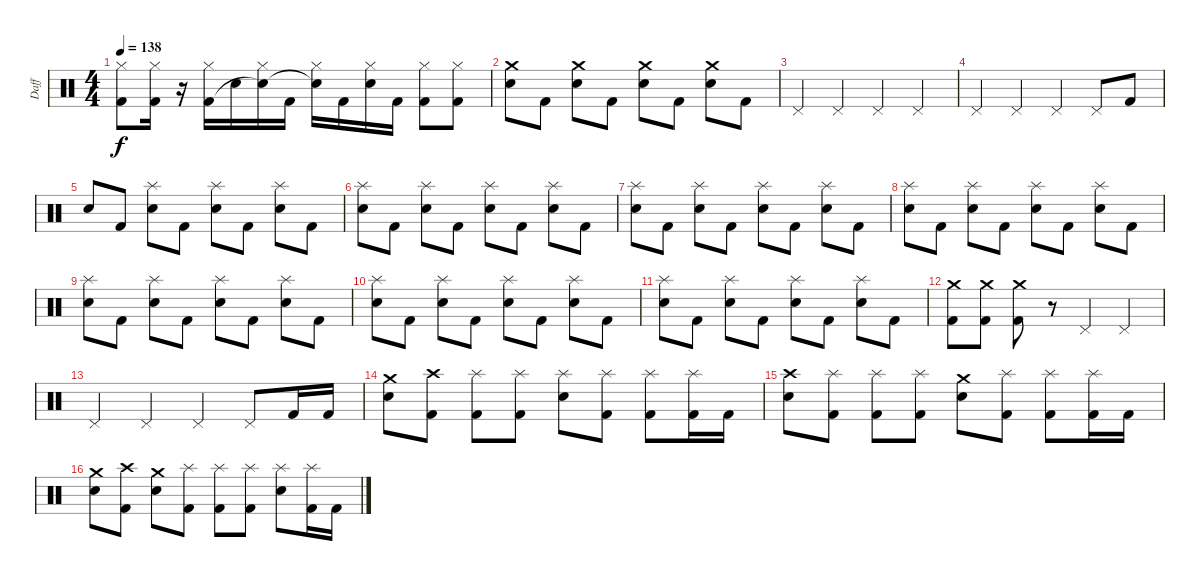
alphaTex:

\track ("Daff" "Daff") {instrument percussion}
\staff {score}
\articulation defaults
\ts (4 4)
\tempo 138
\clef neutral
\ks c
("Hi-Hat (closed)" "Kick (hit) 2").8{dy f} ("Hi-Hat (closed)" "Kick (hit) 2").16 r.16 ("Hi-Hat (closed)" "Kick (hit) 2").16 "Electric Snare (hit)".16 ("Hi-Hat (closed)" "Snare (hit)"{t}).16 "Kick (hit) 2".16 ("Hi-Hat (closed)" "Snare (hit)"{t}).16 "Kick (hit) 2".16 ("Hi-Hat (closed)" "Electric Snare (hit)").16 "Kick (hit) 2".16 ("Hi-Hat (closed)" "Kick (hit) 2").8 ("Hi-Hat (closed)" "Kick (hit) 2").8 |
("Crash medium (hit)" "Electric Snare (hit)").8 "Kick (hit) 2".8 ("Crash medium (hit)" "Electric Snare (hit)").8 "Kick (hit) 2".8 ("Crash medium (hit)" "Electric Snare (hit)").8 "Kick (hit) 2".8 ("Crash medium (hit)" "Electric Snare (hit)").8 "Kick (hit) 2".8 |
"Pedal Hi-Hat (hit)".4 "Pedal Hi-Hat (hit)".4 "Pedal Hi-Hat (hit)".4 "Pedal Hi-Hat (hit)".4 |
"Pedal Hi-Hat (hit)".4 "Pedal Hi-Hat (hit)".4 "Pedal Hi-Hat (hit)".4 "Pedal Hi-Hat (hit)".8 "Kick (hit) 2".8 |
"Electric Snare (hit)".8 "Kick (hit) 2".8 ("Splash (hit)" "Electric Snare (hit)").8 "Kick (hit) 2".8 ("Splash (hit)" "Electric Snare (hit)").8 "Kick (hit) 2".8 ("Splash (hit)" "Electric Snare (hit)").8 "Kick (hit) 2".8 |
("Splash (hit)" "Electric Snare (hit)").8 "Kick (hit) 2".8 ("Splash (hit)" "Electric Snare (hit)").8 "Kick (hit) 2".8 ("Splash (hit)" "Electric Snare (hit)").8 "Kick (hit) 2".8 ("Splash (hit)" "Electric Snare (hit)").8 "Kick (hit) 2".8 |
("Splash (hit)" "Electric Snare (hit)").8 "Kick (hit) 2".8 ("Splash (hit)" "Electric Snare (hit)").8 "Kick (hit) 2".8 ("Splash (hit)" "Electric Snare (hit)").8 "Kick (hit) 2".8 ("Splash (hit)" "Electric Snare (hit)").8 "Kick (hit) 2".8 |
("Splash (hit)" "Electric Snare (hit)").8 "Kick (hit) 2".8 ("Splash (hit)" "Electric Snare (hit)").8 "Kick (hit) 2".8 ("Splash (hit)" "Electric Snare (hit)").8 "Kick (hit) 2".8 ("Splash (hit)" "Electric Snare (hit)").8 "Kick (hit) 2".8 |
("Splash (hit)" "Electric Snare (hit)").8 "Kick (hit) 2".8 ("Splash (hit)" "Electric Snare (hit)").8 "Kick (hit) 2".8 ("Splash (hit)" "Electric Snare (hit)").8 "Kick (hit) 2".8 ("Splash (hit)" "Electric Snare (hit)").8 "Kick (hit) 2".8 |
("Splash (hit)" "Electric Snare (hit)").8 "Kick (hit) 2".8 ("Splash (hit)" "Electric Snare (hit)").8 "Kick (hit) 2".8 ("Splash (hit)" "Electric Snare (hit)").8 "Kick (hit) 2".8 ("Splash (hit)" "Electric Snare (hit)").8 "Kick (hit) 2".8 |
("Splash (hit)" "Electric Snare (hit)").8 "Kick (hit) 2".8 ("Splash (hit)" "Electric Snare (hit)").8 "Kick (hit) 2".8 ("Splash (hit)" "Electric Snare (hit)").8 "Kick (hit) 2".8 ("Splash (hit)" "Electric Snare (hit)").8 "Kick (hit) 2".8 |
("Crash medium (hit)" "Kick (hit) 2").8 ("Crash medium (hit)" "Kick (hit) 2").8 ("Crash medium (hit)" "Kick (hit) 2").8 r.8 "Pedal Hi-Hat (hit)".4 "Pedal Hi-Hat (hit)".4 |
"Pedal Hi-Hat (hit)".4 "Pedal Hi-Hat (hit)".4 "Pedal Hi-Hat (hit)".4 "Pedal Hi-Hat (hit)".8 "Kick (hit) 2".16 "Kick (hit) 2".16 |
("Crash medium (hit)" "Electric Snare (hit)").8 ("Crash high (hit)" "Kick (hit) 2").8 ("Splash (hit)" "Kick (hit) 2").8 ("Splash (hit)" "Kick (hit) 2").8 ("Splash (hit)" "Electric Snare (hit)").8 ("Splash (hit)" "Kick (hit) 2").8 ("Splash (hit)" "Kick (hit) 2").8 ("Splash (hit)" "Kick (hit) 2").16 "Kick (hit) 2".16 |
("Crash high (hit)" "Electric Snare (hit)").8 ("Splash (hit)" "Kick (hit) 2").8 ("Splash (hit)" "Kick (hit) 2").8 ("Splash (hit)" "Kick (hit) 2").8 ("Crash medium (hit)" "Electric Snare (hit)").8 ("Splash (hit)" "Kick (hit) 2").8 ("Splash (hit)" "Kick (hit) 2").8 ("Splash (hit)" "Kick (hit) 2").16 "Kick (hit) 2".16 |
("Crash medium (hit)" "Electric Snare (hit)").8 ("Crash high (hit)" "Kick (hit) 2").8 ("Crash medium (hit)" "Electric Snare (hit)").8 ("Splash (hit)" "Kick (hit) 2").8 ("Splash (hit)" "Kick (hit) 2").8 ("Splash (hit)" "Kick (hit) 2").8 ("Splash (hit)" "Electric Snare (hit)").8 ("Splash (hit)" "Kick (hit) 2").16 "Kick (hit) 2".16
